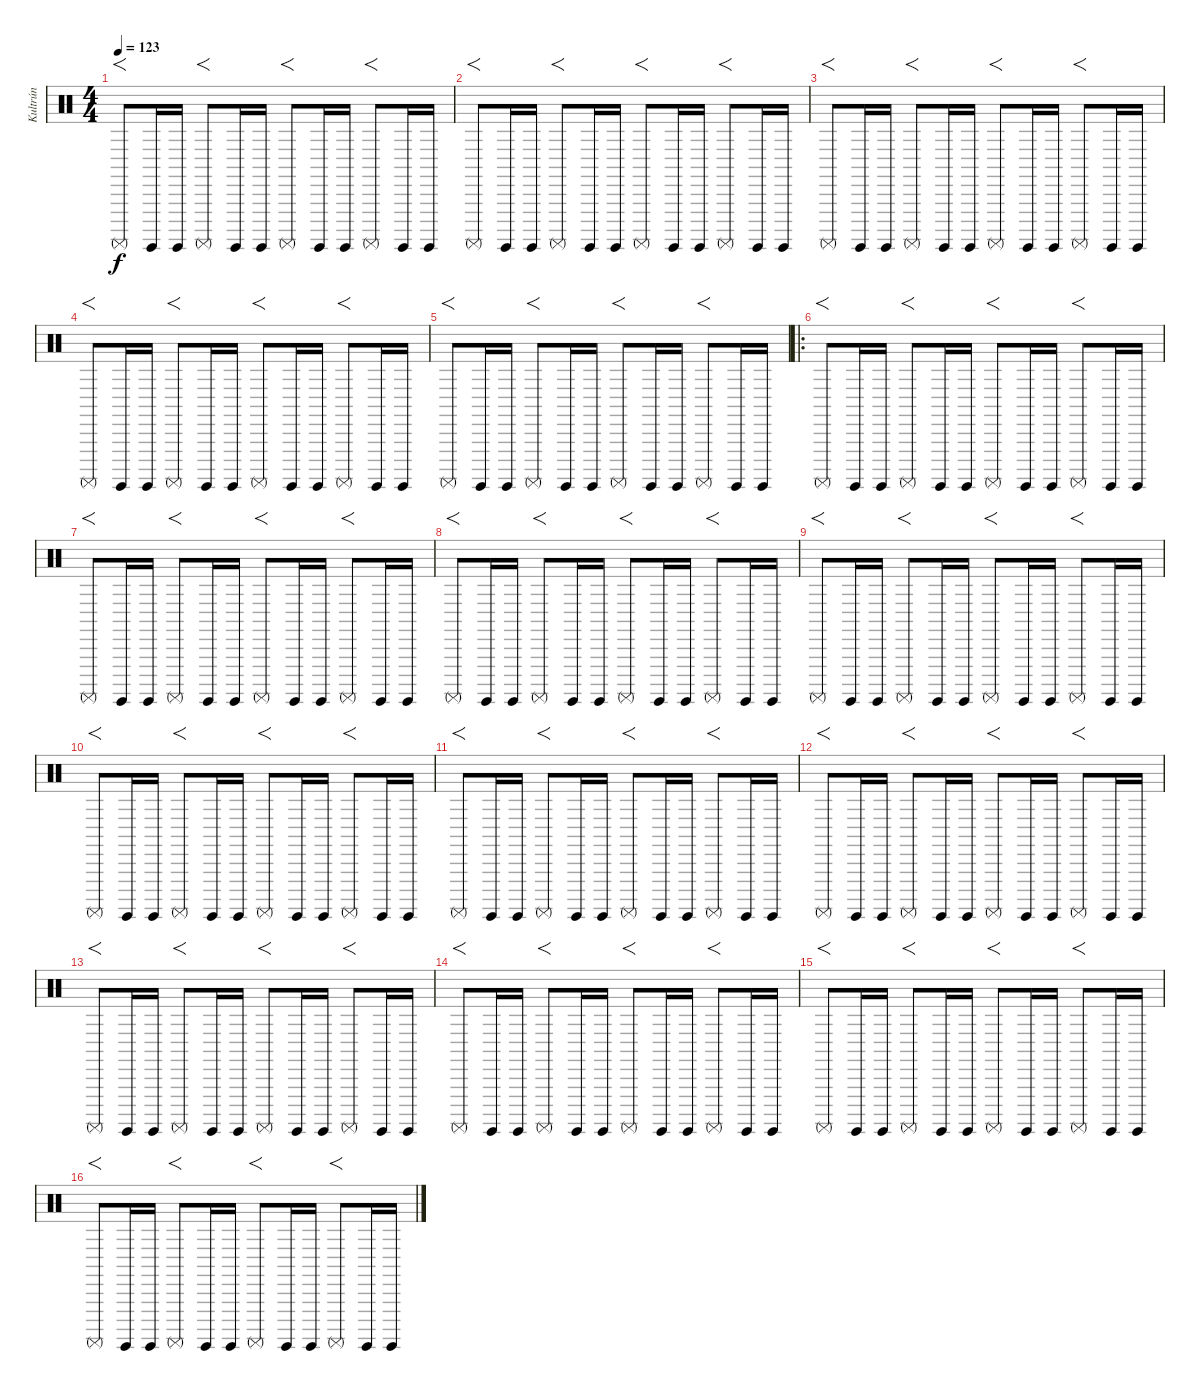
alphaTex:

\track ("Kultrún" "Kultrún") {instrument percussion}
\staff {score}
\articulation defaults
\ts (4 4)
\tempo 123
\clef neutral
\ks c "Surdo (mute)".8{f dy f} "Surdo (hit)".16 "Surdo (hit)".16 "Surdo (mute)".8{f} "Surdo (hit)".16 "Surdo (hit)".16 "Surdo (mute)".8{f} "Surdo (hit)".16 "Surdo (hit)".16 "Surdo (mute)".8{f} "Surdo (hit)".16 "Surdo (hit)".16
|
"Surdo (mute)".8{f} "Surdo (hit)".16 "Surdo (hit)".16 "Surdo (mute)".8{f} "Surdo (hit)".16 "Surdo (hit)".16 "Surdo (mute)".8{f} "Surdo (hit)".16 "Surdo (hit)".16 "Surdo (mute)".8{f} "Surdo (hit)".16 "Surdo (hit)".16 |
"Surdo (mute)".8{f} "Surdo (hit)".16 "Surdo (hit)".16 "Surdo (mute)".8{f} "Surdo (hit)".16 "Surdo (hit)".16 "Surdo (mute)".8{f} "Surdo (hit)".16 "Surdo (hit)".16 "Surdo (mute)".8{f} "Surdo (hit)".16 "Surdo (hit)".16 |
"Surdo (mute)".8{f} "Surdo (hit)".16 "Surdo (hit)".16 "Surdo (mute)".8{f} "Surdo (hit)".16 "Surdo (hit)".16 "Surdo (mute)".8{f} "Surdo (hit)".16 "Surdo (hit)".16 "Surdo (mute)".8{f} "Surdo (hit)".16 "Surdo (hit)".16 |
"Surdo (mute)".8{f} "Surdo (hit)".16 "Surdo (hit)".16 "Surdo (mute)".8{f} "Surdo (hit)".16 "Surdo (hit)".16 "Surdo (mute)".8{f} "Surdo (hit)".16 "Surdo (hit)".16 "Surdo (mute)".8{f} "Surdo (hit)".16 "Surdo (hit)".16 |
\ro "Surdo (mute)".8{f} "Surdo (hit)".16 "Surdo (hit)".16 "Surdo (mute)".8{f} "Surdo (hit)".16 "Surdo (hit)".16 "Surdo (mute)".8{f} "Surdo (hit)".16 "Surdo (hit)".16 "Surdo (mute)".8{f} "Surdo (hit)".16 "Surdo (hit)".16
|
"Surdo (mute)".8{f} "Surdo (hit)".16 "Surdo (hit)".16 "Surdo (mute)".8{f} "Surdo (hit)".16 "Surdo (hit)".16 "Surdo (mute)".8{f} "Surdo (hit)".16 "Surdo (hit)".16 "Surdo (mute)".8{f} "Surdo (hit)".16 "Surdo (hit)".16 |
"Surdo (mute)".8{f} "Surdo (hit)".16 "Surdo (hit)".16 "Surdo (mute)".8{f} "Surdo (hit)".16 "Surdo (hit)".16 "Surdo (mute)".8{f} "Surdo (hit)".16 "Surdo (hit)".16 "Surdo (mute)".8{f} "Surdo (hit)".16 "Surdo (hit)".16 |
"Surdo (mute)".8{f} "Surdo (hit)".16 "Surdo (hit)".16 "Surdo (mute)".8{f} "Surdo (hit)".16 "Surdo (hit)".16 "Surdo (mute)".8{f} "Surdo (hit)".16 "Surdo (hit)".16 "Surdo (mute)".8{f} "Surdo (hit)".16 "Surdo (hit)".16 |
"Surdo (mute)".8{f} "Surdo (hit)".16 "Surdo (hit)".16 "Surdo (mute)".8{f} "Surdo (hit)".16 "Surdo (hit)".16 "Surdo (mute)".8{f} "Surdo (hit)".16 "Surdo (hit)".16 "Surdo (mute)".8{f} "Surdo (hit)".16 "Surdo (hit)".16 |
"Surdo (mute)".8{f} "Surdo (hit)".16 "Surdo (hit)".16 "Surdo (mute)".8{f} "Surdo (hit)".16 "Surdo (hit)".16 "Surdo (mute)".8{f} "Surdo (hit)".16 "Surdo (hit)".16 "Surdo (mute)".8{f} "Surdo (hit)".16 "Surdo (hit)".16 |
"Surdo (mute)".8{f} "Surdo (hit)".16 "Surdo (hit)".16 "Surdo (mute)".8{f} "Surdo (hit)".16 "Surdo (hit)".16 "Surdo (mute)".8{f} "Surdo (hit)".16 "Surdo (hit)".16 "Surdo (mute)".8{f} "Surdo (hit)".16 "Surdo (hit)".16 |
"Surdo (mute)".8{f} "Surdo (hit)".16 "Surdo (hit)".16 "Surdo (mute)".8{f} "Surdo (hit)".16 "Surdo (hit)".16 "Surdo (mute)".8{f} "Surdo (hit)".16 "Surdo (hit)".16 "Surdo (mute)".8{f} "Surdo (hit)".16 "Surdo (hit)".16 |
"Surdo (mute)".8{f} "Surdo (hit)".16 "Surdo (hit)".16 "Surdo (mute)".8{f} "Surdo (hit)".16 "Surdo (hit)".16 "Surdo (mute)".8{f} "Surdo (hit)".16 "Surdo (hit)".16 "Surdo (mute)".8{f} "Surdo (hit)".16 "Surdo (hit)".16 |
"Surdo (mute)".8{f} "Surdo (hit)".16 "Surdo (hit)".16 "Surdo (mute)".8{f} "Surdo (hit)".16 "Surdo (hit)".16 "Surdo (mute)".8{f} "Surdo (hit)".16 "Surdo (hit)".16 "Surdo (mute)".8{f} "Surdo (hit)".16 "Surdo (hit)".16 |
"Surdo (mute)".8{f} "Surdo (hit)".16 "Surdo (hit)".16 "Surdo (mute)".8{f} "Surdo (hit)".16 "Surdo (hit)".16 "Surdo (mute)".8{f} "Surdo (hit)".16 "Surdo (hit)".16 "Surdo (mute)".8{f} "Surdo (hit)".16 "Surdo (hit)".16
